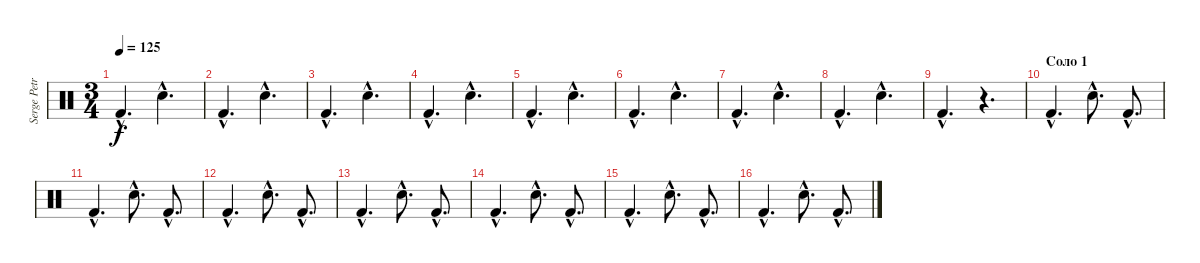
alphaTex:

\track ("Serge Petrone" "Serge Petr") {instrument percussion}
\staff {score}
\articulation defaults
\ts (3 4)
\tempo 125
\clef neutral
\ks c "Kick (hit) 2"{hac}.4{d dy f} "Snare (hit) 2"{hac}.4{d}
|
"Kick (hit) 2"{hac}.4{d} "Snare (hit) 2"{hac}.4{d} |
"Kick (hit) 2"{hac}.4{d} "Snare (hit) 2"{hac}.4{d} |
"Kick (hit) 2"{hac}.4{d} "Snare (hit) 2"{hac}.4{d} |
"Kick (hit) 2"{hac}.4{d} "Snare (hit) 2"{hac}.4{d} |
"Kick (hit) 2"{hac}.4{d} "Snare (hit) 2"{hac}.4{d} |
"Kick (hit) 2"{hac}.4{d} "Snare (hit) 2"{hac}.4{d} |
"Kick (hit) 2"{hac}.4{d} "Snare (hit) 2"{hac}.4{d} |
"Kick (hit) 2"{hac}.4{d} r.4{d} |
\section ("" "Соло 1")
"Kick (hit) 2"{hac}.4{d} "Snare (hit) 2"{hac}.8{d} "Kick (hit) 2"{hac}.8{d} |
"Kick (hit) 2"{hac}.4{d} "Snare (hit) 2"{hac}.8{d} "Kick (hit) 2"{hac}.8{d} |
"Kick (hit) 2"{hac}.4{d} "Snare (hit) 2"{hac}.8{d} "Kick (hit) 2"{hac}.8{d} |
"Kick (hit) 2"{hac}.4{d} "Snare (hit) 2"{hac}.8{d} "Kick (hit) 2"{hac}.8{d} |
"Kick (hit) 2"{hac}.4{d} "Snare (hit) 2"{hac}.8{d} "Kick (hit) 2"{hac}.8{d} |
"Kick (hit) 2"{hac}.4{d} "Snare (hit) 2"{hac}.8{d} "Kick (hit) 2"{hac}.8{d} |
"Kick (hit) 2"{hac}.4{d} "Snare (hit) 2"{hac}.8{d} "Kick (hit) 2"{hac}.8{d}
